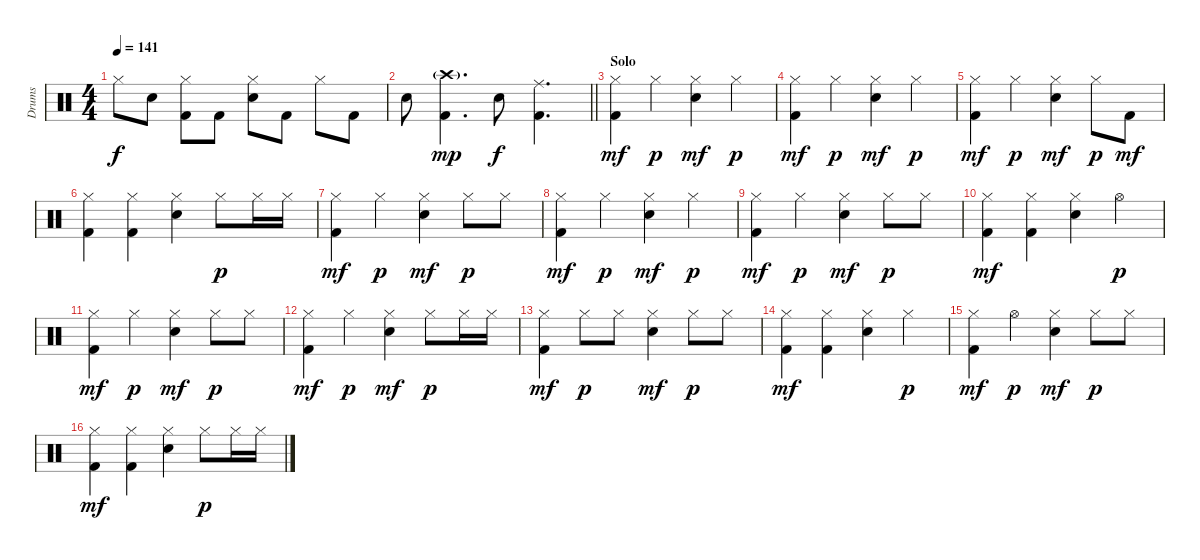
\track ("Drums" "Drums") {instrument percussion}
\staff {score}
\articulation defaults
\ts (4 4)
\tempo 141
\clef neutral
\ks c "Hi-Hat (closed)".8{dy f} "Electric Snare (hit)".8
("Hi-Hat (closed)" "Kick (hit) 2").8 "Kick (hit) 2".8 ("Hi-Hat (closed)" "Electric Snare (hit)").8 "Kick (hit) 2".8 "Hi-Hat (closed)".8 "Kick (hit) 2".8 |
\barLineRight lightlight "Electric Snare (hit)".8
("Crash high (hit)"{g} "Kick (hit) 2").4{d dy mp} "Electric Snare (hit)".8{dy f} ("Ride (middle)" "Kick (hit) 2").4{d} |
\section ("" "Solo")
("Hi-Hat (closed)" "Kick (hit) 2").4{dy mf volume 7} "Hi-Hat (closed)".4{dy p} ("Hi-Hat (closed)" "Electric Snare (hit)").4{dy mf} "Hi-Hat (closed)".4{dy p} |
("Hi-Hat (closed)" "Kick (hit) 2").4{dy mf} "Hi-Hat (closed)".4{dy p} ("Hi-Hat (closed)" "Electric Snare (hit)").4{dy mf} "Hi-Hat (closed)".4{dy p} |
("Hi-Hat (closed)" "Kick (hit) 2").4{dy mf} "Hi-Hat (closed)".4{dy p} ("Hi-Hat (closed)" "Electric Snare (hit)").4{dy mf} "Hi-Hat (closed)".8{dy p} "Kick (hit) 2".8{dy mf} |
("Hi-Hat (closed)" "Kick (hit) 2").4 ("Hi-Hat (closed)" "Kick (hit) 2").4 ("Hi-Hat (closed)" "Electric Snare (hit)").4 "Hi-Hat (closed)".8{dy p} "Hi-Hat (closed)".16 "Hi-Hat (closed)".16 |
("Hi-Hat (closed)" "Kick (hit) 2").4{dy mf} "Hi-Hat (closed)".4{dy p} ("Hi-Hat (closed)" "Electric Snare (hit)").4{dy mf} "Hi-Hat (closed)".8{dy p} "Hi-Hat (closed)".8 |
("Hi-Hat (closed)" "Kick (hit) 2").4{dy mf} "Hi-Hat (closed)".4{dy p} ("Hi-Hat (closed)" "Electric Snare (hit)").4{dy mf} "Hi-Hat (closed)".4{dy p} |
("Hi-Hat (closed)" "Kick (hit) 2").4{dy mf} "Hi-Hat (closed)".4{dy p} ("Hi-Hat (closed)" "Electric Snare (hit)").4{dy mf} "Hi-Hat (closed)".8{dy p} "Hi-Hat (closed)".8 |
("Hi-Hat (closed)" "Kick (hit) 2").4{dy mf} ("Hi-Hat (closed)" "Kick (hit) 2").4 ("Hi-Hat (closed)" "Electric Snare (hit)").4 "Hi-Hat (open)".4{dy p} |
("Hi-Hat (closed)" "Kick (hit) 2").4{dy mf} "Hi-Hat (closed)".4{dy p} ("Hi-Hat (closed)" "Electric Snare (hit)").4{dy mf} "Hi-Hat (closed)".8{dy p} "Hi-Hat (closed)".8 |
("Hi-Hat (closed)" "Kick (hit) 2").4{dy mf} "Hi-Hat (closed)".4{dy p} ("Hi-Hat (closed)" "Electric Snare (hit)").4{dy mf} "Hi-Hat (closed)".8{dy p} "Hi-Hat (closed)".16 "Hi-Hat (closed)".16 |
("Hi-Hat (closed)" "Kick (hit) 2").4{dy mf} "Hi-Hat (closed)".8{dy p} "Hi-Hat (closed)".8 ("Hi-Hat (closed)" "Electric Snare (hit)").4{dy mf} "Hi-Hat (closed)".8{dy p} "Hi-Hat (closed)".8 |
("Hi-Hat (closed)" "Kick (hit) 2").4{dy mf} ("Hi-Hat (closed)" "Kick (hit) 2").4 ("Hi-Hat (closed)" "Electric Snare (hit)").4 "Hi-Hat (closed)".4{dy p} |
("Hi-Hat (closed)" "Kick (hit) 2").4{dy mf} "Hi-Hat (open)".4{dy p} ("Hi-Hat (closed)" "Electric Snare (hit)").4{dy mf} "Hi-Hat (closed)".8{dy p} "Hi-Hat (closed)".8 |
("Hi-Hat (closed)" "Kick (hit) 2").4{dy mf} ("Hi-Hat (closed)" "Kick (hit) 2").4 ("Hi-Hat (closed)" "Electric Snare (hit)").4 "Hi-Hat (closed)".8{dy p} "Hi-Hat (closed)".16 "Hi-Hat (closed)".16
